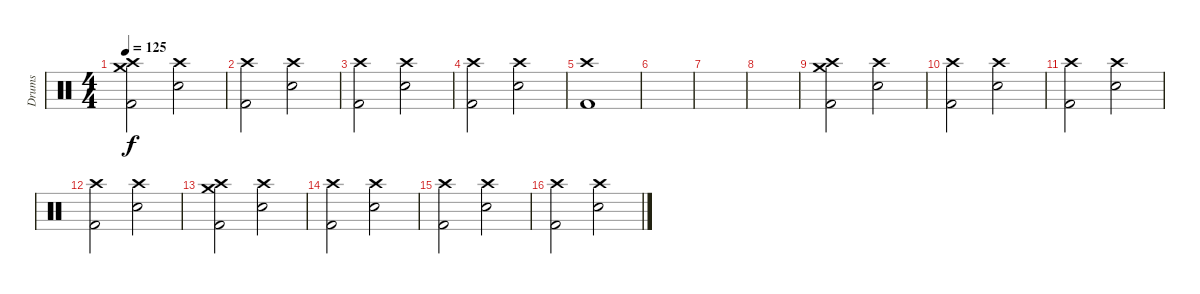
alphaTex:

\track ("Drums" "Drums") {instrument percussion}
\staff {score}
\articulation defaults
\ts (4 4)
\tempo 125
\clef neutral
\ks c
("Crash medium (hit)" "Crash high (hit)" "Kick (hit) 2").2{dy f} ("Crash high (hit)" "Snare (hit) 2").2 |
("Crash high (hit)" "Kick (hit) 2").2 ("Crash high (hit)" "Snare (hit) 2").2 |
("Crash high (hit)" "Kick (hit) 2").2 ("Crash high (hit)" "Snare (hit) 2").2 |
("Crash high (hit)" "Kick (hit) 2").2 ("Crash high (hit)" "Snare (hit) 2").2 |
("Crash high (hit)" "Kick (hit) 2").1 |
|
|
|
("Crash medium (hit)" "Crash high (hit)" "Kick (hit) 2").2 ("Crash high (hit)" "Snare (hit) 2").2 |
("Crash high (hit)" "Kick (hit) 2").2 ("Crash high (hit)" "Snare (hit) 2").2 |
("Crash high (hit)" "Kick (hit) 2").2 ("Crash high (hit)" "Snare (hit) 2").2 |
("Crash high (hit)" "Kick (hit) 2").2 ("Crash high (hit)" "Snare (hit) 2").2 |
("Crash medium (hit)" "Crash high (hit)" "Kick (hit) 2").2 ("Crash high (hit)" "Snare (hit) 2").2 |
("Crash high (hit)" "Kick (hit) 2").2 ("Crash high (hit)" "Snare (hit) 2").2 |
("Crash high (hit)" "Kick (hit) 2").2 ("Crash high (hit)" "Snare (hit) 2").2 |
("Crash high (hit)" "Kick (hit) 2").2 ("Crash high (hit)" "Snare (hit) 2").2
